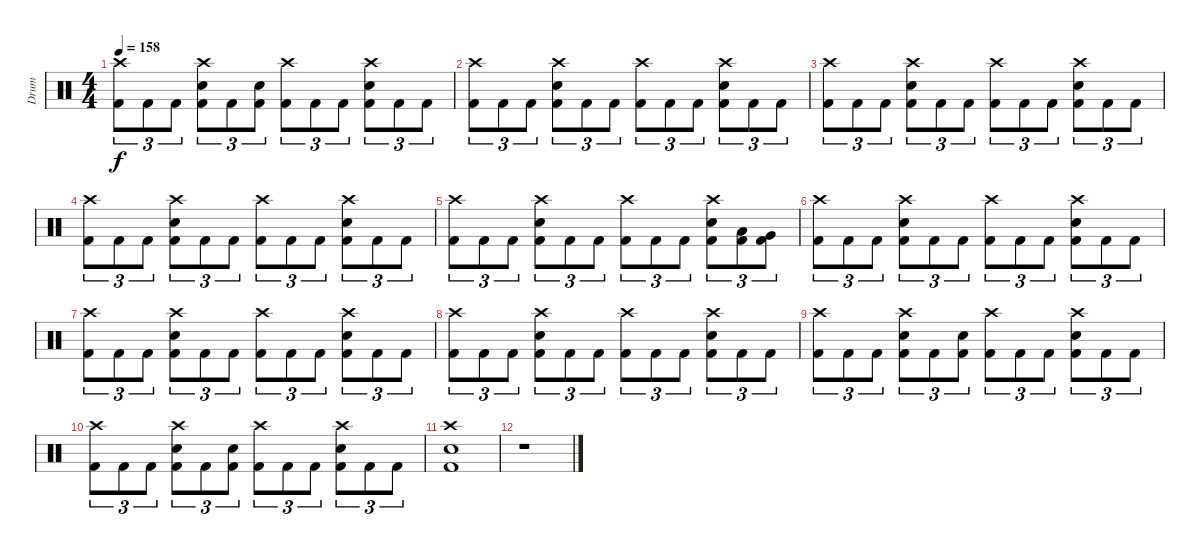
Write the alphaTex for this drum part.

\track ("Drum" "Drum") {instrument percussion}
\staff {score}
\articulation defaults
\ts (4 4)
\tempo 158
\clef neutral
\ks c
("Crash high (hit)" "Kick (hit) 2").8{tu (3 2) dy f} "Kick (hit) 2".8{tu (3 2)} "Kick (hit) 2".8{tu (3 2)} ("Crash high (hit)" "Electric Snare (hit)" "Kick (hit) 2").8{tu (3 2)} "Kick (hit) 2".8{tu (3 2)} ("Electric Snare (hit)" "Kick (hit) 2").8{tu (3 2)} ("Crash high (hit)" "Kick (hit) 2").8{tu (3 2)} "Kick (hit) 2".8{tu (3 2)} "Kick (hit) 2".8{tu (3 2)} ("Crash high (hit)" "Electric Snare (hit)" "Kick (hit) 2").8{tu (3 2)} "Kick (hit) 2".8{tu (3 2)} "Kick (hit) 2".8{tu (3 2)} |
("Crash high (hit)" "Kick (hit) 2").8{tu (3 2)} "Kick (hit) 2".8{tu (3 2)} "Kick (hit) 2".8{tu (3 2)} ("Crash high (hit)" "Electric Snare (hit)" "Kick (hit) 2").8{tu (3 2)} "Kick (hit) 2".8{tu (3 2)} "Kick (hit) 2".8{tu (3 2)} ("Crash high (hit)" "Kick (hit) 2").8{tu (3 2)} "Kick (hit) 2".8{tu (3 2)} "Kick (hit) 2".8{tu (3 2)} ("Crash high (hit)" "Electric Snare (hit)" "Kick (hit) 2").8{tu (3 2)} "Kick (hit) 2".8{tu (3 2)} "Kick (hit) 2".8{tu (3 2)} |
("Crash high (hit)" "Kick (hit) 2").8{tu (3 2)} "Kick (hit) 2".8{tu (3 2)} "Kick (hit) 2".8{tu (3 2)} ("Crash high (hit)" "Electric Snare (hit)" "Kick (hit) 2").8{tu (3 2)} "Kick (hit) 2".8{tu (3 2)} "Kick (hit) 2".8{tu (3 2)} ("Crash high (hit)" "Kick (hit) 2").8{tu (3 2)} "Kick (hit) 2".8{tu (3 2)} "Kick (hit) 2".8{tu (3 2)} ("Crash high (hit)" "Electric Snare (hit)" "Kick (hit) 2").8{tu (3 2)} "Kick (hit) 2".8{tu (3 2)} "Kick (hit) 2".8{tu (3 2)} |
("Crash high (hit)" "Kick (hit) 2").8{tu (3 2)} "Kick (hit) 2".8{tu (3 2)} "Kick (hit) 2".8{tu (3 2)} ("Crash high (hit)" "Electric Snare (hit)" "Kick (hit) 2").8{tu (3 2)} "Kick (hit) 2".8{tu (3 2)} "Kick (hit) 2".8{tu (3 2)} ("Crash high (hit)" "Kick (hit) 2").8{tu (3 2)} "Kick (hit) 2".8{tu (3 2)} "Kick (hit) 2".8{tu (3 2)} ("Crash high (hit)" "Electric Snare (hit)" "Kick (hit) 2").8{tu (3 2)} "Kick (hit) 2".8{tu (3 2)} "Kick (hit) 2".8{tu (3 2)} |
("Crash high (hit)" "Kick (hit) 2").8{tu (3 2)} "Kick (hit) 2".8{tu (3 2)} "Kick (hit) 2".8{tu (3 2)} ("Crash high (hit)" "Electric Snare (hit)" "Kick (hit) 2").8{tu (3 2)} "Kick (hit) 2".8{tu (3 2)} "Kick (hit) 2".8{tu (3 2)} ("Crash high (hit)" "Kick (hit) 2").8{tu (3 2)} "Kick (hit) 2".8{tu (3 2)} "Kick (hit) 2".8{tu (3 2)} ("Crash high (hit)" "Electric Snare (hit)" "Kick (hit) 2").8{tu (3 2)} ("Low Tom (hit)" "Kick (hit) 2").8{tu (3 2)} ("Very Low Tom (hit)" "Kick (hit) 2").8{tu (3 2)} |
("Crash high (hit)" "Kick (hit) 2").8{tu (3 2)} "Kick (hit) 2".8{tu (3 2)} "Kick (hit) 2".8{tu (3 2)} ("Crash high (hit)" "Electric Snare (hit)" "Kick (hit) 2").8{tu (3 2)} "Kick (hit) 2".8{tu (3 2)} "Kick (hit) 2".8{tu (3 2)} ("Crash high (hit)" "Kick (hit) 2").8{tu (3 2)} "Kick (hit) 2".8{tu (3 2)} "Kick (hit) 2".8{tu (3 2)} ("Crash high (hit)" "Electric Snare (hit)" "Kick (hit) 2").8{tu (3 2)} "Kick (hit) 2".8{tu (3 2)} "Kick (hit) 2".8{tu (3 2)} |
("Crash high (hit)" "Kick (hit) 2").8{tu (3 2)} "Kick (hit) 2".8{tu (3 2)} "Kick (hit) 2".8{tu (3 2)} ("Crash high (hit)" "Electric Snare (hit)" "Kick (hit) 2").8{tu (3 2)} "Kick (hit) 2".8{tu (3 2)} "Kick (hit) 2".8{tu (3 2)} ("Crash high (hit)" "Kick (hit) 2").8{tu (3 2)} "Kick (hit) 2".8{tu (3 2)} "Kick (hit) 2".8{tu (3 2)} ("Crash high (hit)" "Electric Snare (hit)" "Kick (hit) 2").8{tu (3 2)} "Kick (hit) 2".8{tu (3 2)} "Kick (hit) 2".8{tu (3 2)} |
("Crash high (hit)" "Kick (hit) 2").8{tu (3 2)} "Kick (hit) 2".8{tu (3 2)} "Kick (hit) 2".8{tu (3 2)} ("Crash high (hit)" "Electric Snare (hit)" "Kick (hit) 2").8{tu (3 2)} "Kick (hit) 2".8{tu (3 2)} "Kick (hit) 2".8{tu (3 2)} ("Crash high (hit)" "Kick (hit) 2").8{tu (3 2)} "Kick (hit) 2".8{tu (3 2)} "Kick (hit) 2".8{tu (3 2)} ("Crash high (hit)" "Electric Snare (hit)" "Kick (hit) 2").8{tu (3 2)} "Kick (hit) 2".8{tu (3 2)} "Kick (hit) 2".8{tu (3 2)} |
("Crash high (hit)" "Kick (hit) 2").8{tu (3 2)} "Kick (hit) 2".8{tu (3 2)} "Kick (hit) 2".8{tu (3 2)} ("Crash high (hit)" "Electric Snare (hit)" "Kick (hit) 2").8{tu (3 2)} "Kick (hit) 2".8{tu (3 2)} ("Electric Snare (hit)" "Kick (hit) 2").8{tu (3 2)} ("Crash high (hit)" "Kick (hit) 2").8{tu (3 2)} "Kick (hit) 2".8{tu (3 2)} "Kick (hit) 2".8{tu (3 2)} ("Crash high (hit)" "Electric Snare (hit)" "Kick (hit) 2").8{tu (3 2)} "Kick (hit) 2".8{tu (3 2)} "Kick (hit) 2".8{tu (3 2)} |
("Crash high (hit)" "Kick (hit) 2").8{tu (3 2)} "Kick (hit) 2".8{tu (3 2)} "Kick (hit) 2".8{tu (3 2)} ("Crash high (hit)" "Electric Snare (hit)" "Kick (hit) 2").8{tu (3 2)} "Kick (hit) 2".8{tu (3 2)} ("Electric Snare (hit)" "Kick (hit) 2").8{tu (3 2)} ("Crash high (hit)" "Kick (hit) 2").8{tu (3 2)} "Kick (hit) 2".8{tu (3 2)} "Kick (hit) 2".8{tu (3 2)} ("Crash high (hit)" "Electric Snare (hit)" "Kick (hit) 2").8{tu (3 2)} "Kick (hit) 2".8{tu (3 2)} "Kick (hit) 2".8{tu (3 2)} |
("Crash high (hit)" "Electric Snare (hit)" "Kick (hit) 2").1 |
r.1
